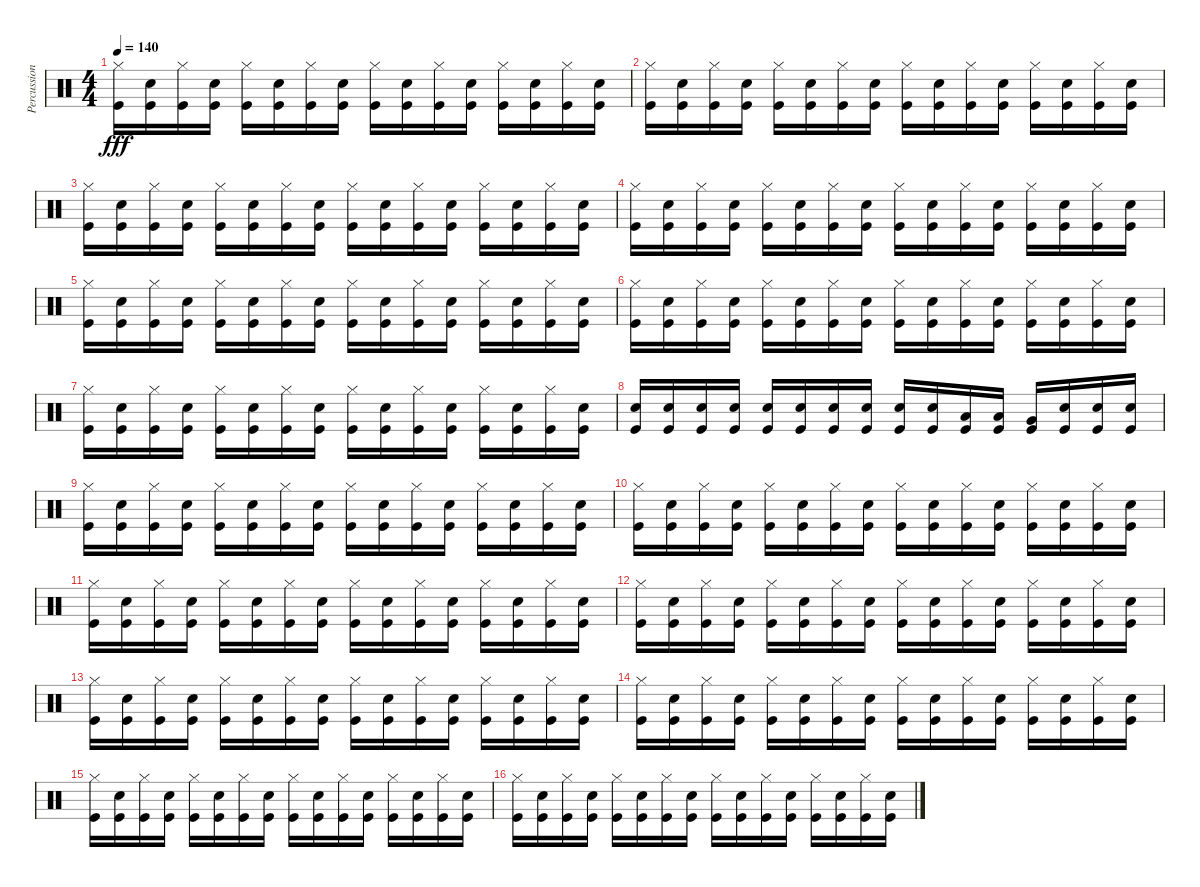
\track ("Percussion" "Percussion") {instrument percussion}
\staff {score}
\articulation defaults
\ts (4 4)
\tempo 140
\clef neutral
\ks c
("Hi-Hat (closed)" "Kick (hit)").16{dy fff} ("Snare (hit) 2" "Kick (hit)").16 ("Hi-Hat (closed)" "Kick (hit)").16 ("Snare (hit) 2" "Kick (hit)").16 ("Hi-Hat (closed)" "Kick (hit)").16 ("Snare (hit) 2" "Kick (hit)").16 ("Hi-Hat (closed)" "Kick (hit)").16 ("Snare (hit) 2" "Kick (hit)").16 ("Hi-Hat (closed)" "Kick (hit)").16 ("Snare (hit) 2" "Kick (hit)").16 ("Hi-Hat (closed)" "Kick (hit)").16 ("Snare (hit) 2" "Kick (hit)").16 ("Hi-Hat (closed)" "Kick (hit)").16 ("Snare (hit) 2" "Kick (hit)").16 ("Hi-Hat (closed)" "Kick (hit)").16 ("Snare (hit) 2" "Kick (hit)").16 |
("Hi-Hat (closed)" "Kick (hit)").16 ("Snare (hit) 2" "Kick (hit)").16 ("Hi-Hat (closed)" "Kick (hit)").16 ("Snare (hit) 2" "Kick (hit)").16 ("Hi-Hat (closed)" "Kick (hit)").16 ("Snare (hit) 2" "Kick (hit)").16 ("Hi-Hat (closed)" "Kick (hit)").16 ("Snare (hit) 2" "Kick (hit)").16 ("Hi-Hat (closed)" "Kick (hit)").16 ("Snare (hit) 2" "Kick (hit)").16 ("Hi-Hat (closed)" "Kick (hit)").16 ("Snare (hit) 2" "Kick (hit)").16 ("Hi-Hat (closed)" "Kick (hit)").16 ("Snare (hit) 2" "Kick (hit)").16 ("Hi-Hat (closed)" "Kick (hit)").16 ("Snare (hit) 2" "Kick (hit)").16 |
("Hi-Hat (closed)" "Kick (hit)").16 ("Snare (hit) 2" "Kick (hit)").16 ("Hi-Hat (closed)" "Kick (hit)").16 ("Snare (hit) 2" "Kick (hit)").16 ("Hi-Hat (closed)" "Kick (hit)").16 ("Snare (hit) 2" "Kick (hit)").16 ("Hi-Hat (closed)" "Kick (hit)").16 ("Snare (hit) 2" "Kick (hit)").16 ("Hi-Hat (closed)" "Kick (hit)").16 ("Snare (hit) 2" "Kick (hit)").16 ("Hi-Hat (closed)" "Kick (hit)").16 ("Snare (hit) 2" "Kick (hit)").16 ("Hi-Hat (closed)" "Kick (hit)").16 ("Snare (hit) 2" "Kick (hit)").16 ("Hi-Hat (closed)" "Kick (hit)").16 ("Snare (hit) 2" "Kick (hit)").16 |
("Hi-Hat (closed)" "Kick (hit)").16 ("Snare (hit) 2" "Kick (hit)").16 ("Hi-Hat (closed)" "Kick (hit)").16 ("Snare (hit) 2" "Kick (hit)").16 ("Hi-Hat (closed)" "Kick (hit)").16 ("Snare (hit) 2" "Kick (hit)").16 ("Hi-Hat (closed)" "Kick (hit)").16 ("Snare (hit) 2" "Kick (hit)").16 ("Hi-Hat (closed)" "Kick (hit)").16 ("Snare (hit) 2" "Kick (hit)").16 ("Hi-Hat (closed)" "Kick (hit)").16 ("Snare (hit) 2" "Kick (hit)").16 ("Hi-Hat (closed)" "Kick (hit)").16 ("Snare (hit) 2" "Kick (hit)").16 ("Hi-Hat (closed)" "Kick (hit)").16 ("Snare (hit) 2" "Kick (hit)").16 |
("Hi-Hat (closed)" "Kick (hit)").16 ("Snare (hit) 2" "Kick (hit)").16 ("Hi-Hat (closed)" "Kick (hit)").16 ("Snare (hit) 2" "Kick (hit)").16 ("Hi-Hat (closed)" "Kick (hit)").16 ("Snare (hit) 2" "Kick (hit)").16 ("Hi-Hat (closed)" "Kick (hit)").16 ("Snare (hit) 2" "Kick (hit)").16 ("Hi-Hat (closed)" "Kick (hit)").16 ("Snare (hit) 2" "Kick (hit)").16 ("Hi-Hat (closed)" "Kick (hit)").16 ("Snare (hit) 2" "Kick (hit)").16 ("Hi-Hat (closed)" "Kick (hit)").16 ("Snare (hit) 2" "Kick (hit)").16 ("Hi-Hat (closed)" "Kick (hit)").16 ("Snare (hit) 2" "Kick (hit)").16 |
("Hi-Hat (closed)" "Kick (hit)").16 ("Snare (hit) 2" "Kick (hit)").16 ("Hi-Hat (closed)" "Kick (hit)").16 ("Snare (hit) 2" "Kick (hit)").16 ("Hi-Hat (closed)" "Kick (hit)").16 ("Snare (hit) 2" "Kick (hit)").16 ("Hi-Hat (closed)" "Kick (hit)").16 ("Snare (hit) 2" "Kick (hit)").16 ("Hi-Hat (closed)" "Kick (hit)").16 ("Snare (hit) 2" "Kick (hit)").16 ("Hi-Hat (closed)" "Kick (hit)").16 ("Snare (hit) 2" "Kick (hit)").16 ("Hi-Hat (closed)" "Kick (hit)").16 ("Snare (hit) 2" "Kick (hit)").16 ("Hi-Hat (closed)" "Kick (hit)").16 ("Snare (hit) 2" "Kick (hit)").16 |
("Hi-Hat (closed)" "Kick (hit)").16 ("Snare (hit) 2" "Kick (hit)").16 ("Hi-Hat (closed)" "Kick (hit)").16 ("Snare (hit) 2" "Kick (hit)").16 ("Hi-Hat (closed)" "Kick (hit)").16 ("Snare (hit) 2" "Kick (hit)").16 ("Hi-Hat (closed)" "Kick (hit)").16 ("Snare (hit) 2" "Kick (hit)").16 ("Hi-Hat (closed)" "Kick (hit)").16 ("Snare (hit) 2" "Kick (hit)").16 ("Hi-Hat (closed)" "Kick (hit)").16 ("Snare (hit) 2" "Kick (hit)").16 ("Hi-Hat (closed)" "Kick (hit)").16 ("Snare (hit) 2" "Kick (hit)").16 ("Hi-Hat (closed)" "Kick (hit)").16 ("Snare (hit) 2" "Kick (hit)").16 |
("Snare (hit) 2" "Kick (hit)").16 ("Snare (hit) 2" "Kick (hit)").16 ("Snare (hit) 2" "Kick (hit)").16 ("Snare (hit) 2" "Kick (hit)").16 ("Snare (hit) 2" "Kick (hit)").16 ("Snare (hit) 2" "Kick (hit)").16 ("Snare (hit) 2" "Kick (hit)").16 ("Snare (hit) 2" "Kick (hit)").16 ("Snare (hit) 2" "Kick (hit)").16 ("Snare (hit) 2" "Kick (hit)").16 ("Low Tom (hit)" "Kick (hit)").16 ("Low Tom (hit)" "Kick (hit)").16 ("Very Low Tom (hit)" "Kick (hit)").16 ("Snare (hit) 2" "Kick (hit)").16 ("Snare (hit) 2" "Kick (hit)").16 ("Snare (hit) 2" "Kick (hit)").16 |
("Hi-Hat (closed)" "Kick (hit)").16 ("Snare (hit) 2" "Kick (hit)").16 ("Hi-Hat (closed)" "Kick (hit)").16 ("Snare (hit) 2" "Kick (hit)").16 ("Hi-Hat (closed)" "Kick (hit)").16 ("Snare (hit) 2" "Kick (hit)").16 ("Hi-Hat (closed)" "Kick (hit)").16 ("Snare (hit) 2" "Kick (hit)").16 ("Hi-Hat (closed)" "Kick (hit)").16 ("Snare (hit) 2" "Kick (hit)").16 ("Hi-Hat (closed)" "Kick (hit)").16 ("Snare (hit) 2" "Kick (hit)").16 ("Hi-Hat (closed)" "Kick (hit)").16 ("Snare (hit) 2" "Kick (hit)").16 ("Hi-Hat (closed)" "Kick (hit)").16 ("Snare (hit) 2" "Kick (hit)").16 |
("Hi-Hat (closed)" "Kick (hit)").16 ("Snare (hit) 2" "Kick (hit)").16 ("Hi-Hat (closed)" "Kick (hit)").16 ("Snare (hit) 2" "Kick (hit)").16 ("Hi-Hat (closed)" "Kick (hit)").16 ("Snare (hit) 2" "Kick (hit)").16 ("Hi-Hat (closed)" "Kick (hit)").16 ("Snare (hit) 2" "Kick (hit)").16 ("Hi-Hat (closed)" "Kick (hit)").16 ("Snare (hit) 2" "Kick (hit)").16 ("Hi-Hat (closed)" "Kick (hit)").16 ("Snare (hit) 2" "Kick (hit)").16 ("Hi-Hat (closed)" "Kick (hit)").16 ("Snare (hit) 2" "Kick (hit)").16 ("Hi-Hat (closed)" "Kick (hit)").16 ("Snare (hit) 2" "Kick (hit)").16 |
("Hi-Hat (closed)" "Kick (hit)").16 ("Snare (hit) 2" "Kick (hit)").16 ("Hi-Hat (closed)" "Kick (hit)").16 ("Snare (hit) 2" "Kick (hit)").16 ("Hi-Hat (closed)" "Kick (hit)").16 ("Snare (hit) 2" "Kick (hit)").16 ("Hi-Hat (closed)" "Kick (hit)").16 ("Snare (hit) 2" "Kick (hit)").16 ("Hi-Hat (closed)" "Kick (hit)").16 ("Snare (hit) 2" "Kick (hit)").16 ("Hi-Hat (closed)" "Kick (hit)").16 ("Snare (hit) 2" "Kick (hit)").16 ("Hi-Hat (closed)" "Kick (hit)").16 ("Snare (hit) 2" "Kick (hit)").16 ("Hi-Hat (closed)" "Kick (hit)").16 ("Snare (hit) 2" "Kick (hit)").16 |
("Hi-Hat (closed)" "Kick (hit)").16 ("Snare (hit) 2" "Kick (hit)").16 ("Hi-Hat (closed)" "Kick (hit)").16 ("Snare (hit) 2" "Kick (hit)").16 ("Hi-Hat (closed)" "Kick (hit)").16 ("Snare (hit) 2" "Kick (hit)").16 ("Hi-Hat (closed)" "Kick (hit)").16 ("Snare (hit) 2" "Kick (hit)").16 ("Hi-Hat (closed)" "Kick (hit)").16 ("Snare (hit) 2" "Kick (hit)").16 ("Hi-Hat (closed)" "Kick (hit)").16 ("Snare (hit) 2" "Kick (hit)").16 ("Hi-Hat (closed)" "Kick (hit)").16 ("Snare (hit) 2" "Kick (hit)").16 ("Hi-Hat (closed)" "Kick (hit)").16 ("Snare (hit) 2" "Kick (hit)").16 |
("Hi-Hat (closed)" "Kick (hit)").16 ("Snare (hit) 2" "Kick (hit)").16 ("Hi-Hat (closed)" "Kick (hit)").16 ("Snare (hit) 2" "Kick (hit)").16 ("Hi-Hat (closed)" "Kick (hit)").16 ("Snare (hit) 2" "Kick (hit)").16 ("Hi-Hat (closed)" "Kick (hit)").16 ("Snare (hit) 2" "Kick (hit)").16 ("Hi-Hat (closed)" "Kick (hit)").16 ("Snare (hit) 2" "Kick (hit)").16 ("Hi-Hat (closed)" "Kick (hit)").16 ("Snare (hit) 2" "Kick (hit)").16 ("Hi-Hat (closed)" "Kick (hit)").16 ("Snare (hit) 2" "Kick (hit)").16 ("Hi-Hat (closed)" "Kick (hit)").16 ("Snare (hit) 2" "Kick (hit)").16 |
("Hi-Hat (closed)" "Kick (hit)").16 ("Snare (hit) 2" "Kick (hit)").16 ("Hi-Hat (closed)" "Kick (hit)").16 ("Snare (hit) 2" "Kick (hit)").16 ("Hi-Hat (closed)" "Kick (hit)").16 ("Snare (hit) 2" "Kick (hit)").16 ("Hi-Hat (closed)" "Kick (hit)").16 ("Snare (hit) 2" "Kick (hit)").16 ("Hi-Hat (closed)" "Kick (hit)").16 ("Snare (hit) 2" "Kick (hit)").16 ("Hi-Hat (closed)" "Kick (hit)").16 ("Snare (hit) 2" "Kick (hit)").16 ("Hi-Hat (closed)" "Kick (hit)").16 ("Snare (hit) 2" "Kick (hit)").16 ("Hi-Hat (closed)" "Kick (hit)").16 ("Snare (hit) 2" "Kick (hit)").16 |
("Hi-Hat (closed)" "Kick (hit)").16 ("Snare (hit) 2" "Kick (hit)").16 ("Hi-Hat (closed)" "Kick (hit)").16 ("Snare (hit) 2" "Kick (hit)").16 ("Hi-Hat (closed)" "Kick (hit)").16 ("Snare (hit) 2" "Kick (hit)").16 ("Hi-Hat (closed)" "Kick (hit)").16 ("Snare (hit) 2" "Kick (hit)").16 ("Hi-Hat (closed)" "Kick (hit)").16 ("Snare (hit) 2" "Kick (hit)").16 ("Hi-Hat (closed)" "Kick (hit)").16 ("Snare (hit) 2" "Kick (hit)").16 ("Hi-Hat (closed)" "Kick (hit)").16 ("Snare (hit) 2" "Kick (hit)").16 ("Hi-Hat (closed)" "Kick (hit)").16 ("Snare (hit) 2" "Kick (hit)").16 |
("Hi-Hat (closed)" "Kick (hit)").16 ("Snare (hit) 2" "Kick (hit)").16 ("Hi-Hat (closed)" "Kick (hit)").16 ("Snare (hit) 2" "Kick (hit)").16 ("Hi-Hat (closed)" "Kick (hit)").16 ("Snare (hit) 2" "Kick (hit)").16 ("Hi-Hat (closed)" "Kick (hit)").16 ("Snare (hit) 2" "Kick (hit)").16 ("Hi-Hat (closed)" "Kick (hit)").16 ("Snare (hit) 2" "Kick (hit)").16 ("Hi-Hat (closed)" "Kick (hit)").16 ("Snare (hit) 2" "Kick (hit)").16 ("Hi-Hat (closed)" "Kick (hit)").16 ("Snare (hit) 2" "Kick (hit)").16 ("Hi-Hat (closed)" "Kick (hit)").16 ("Snare (hit) 2" "Kick (hit)").16
